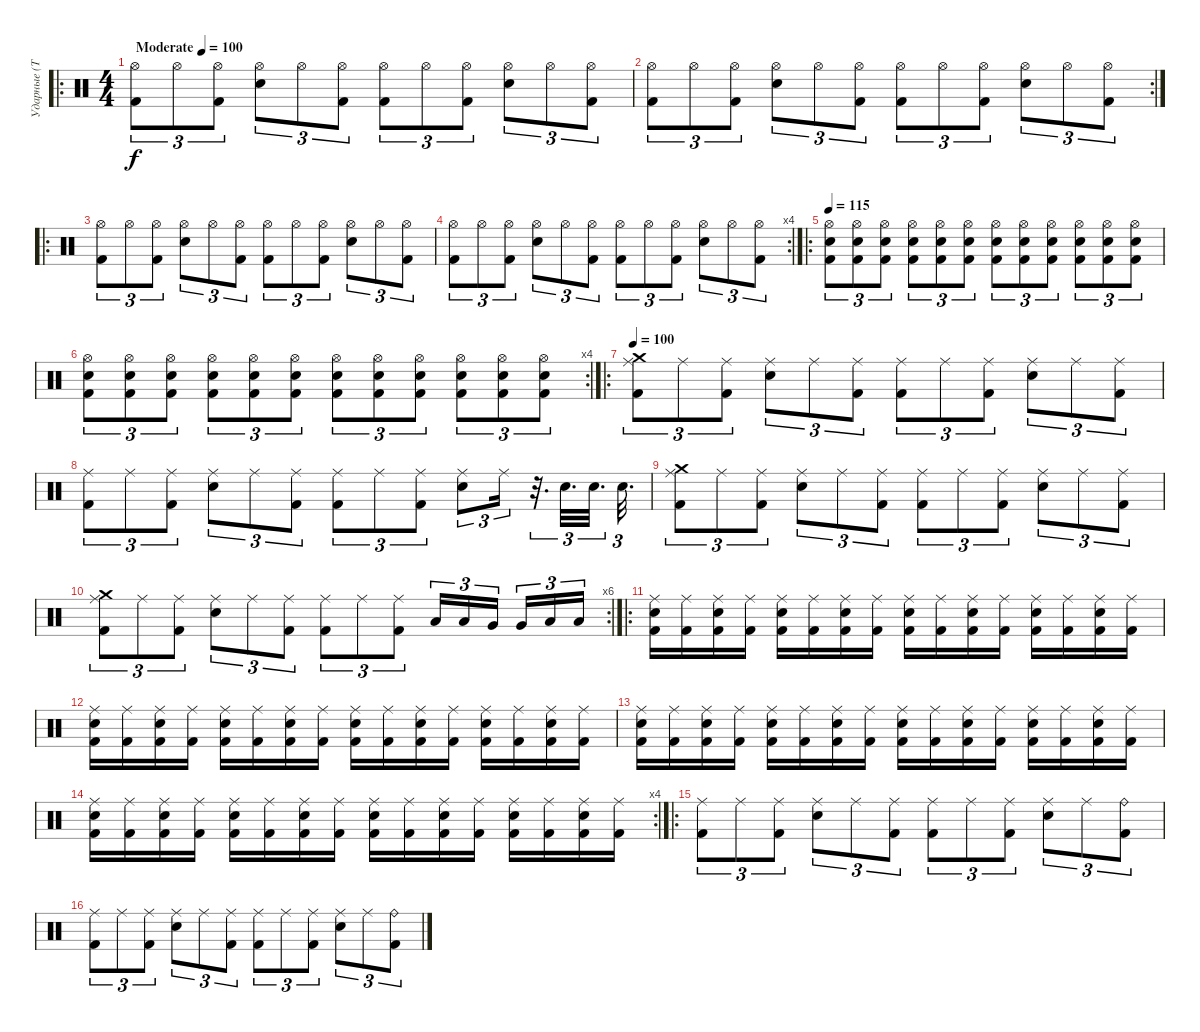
\track ("Ударные (Тьодальв)" "Ударные (Т") {instrument percussion}
\staff {score}
\articulation defaults
\ro
\ts (4 4)
\tempo (100 "Moderate")
\clef neutral
\ks c
("Hi-Hat (open)" "Kick (hit) 2").8{tu (3 2) dy f} "Hi-Hat (open)".8{tu (3 2)} ("Hi-Hat (open)" "Kick (hit) 2").8{tu (3 2)} ("Hi-Hat (open)" "Snare (hit) 2").8{tu (3 2)} "Hi-Hat (open)".8{tu (3 2)} ("Hi-Hat (open)" "Kick (hit) 2").8{tu (3 2)} ("Hi-Hat (open)" "Kick (hit) 2").8{tu (3 2)} "Hi-Hat (open)".8{tu (3 2)} ("Hi-Hat (open)" "Kick (hit) 2").8{tu (3 2)} ("Hi-Hat (open)" "Snare (hit) 2").8{tu (3 2)} "Hi-Hat (open)".8{tu (3 2)} ("Hi-Hat (open)" "Kick (hit) 2").8{tu (3 2)} |
\rc 2
("Hi-Hat (open)" "Kick (hit) 2").8{tu (3 2)} "Hi-Hat (open)".8{tu (3 2)} ("Hi-Hat (open)" "Kick (hit) 2").8{tu (3 2)} ("Hi-Hat (open)" "Snare (hit) 2").8{tu (3 2)} "Hi-Hat (open)".8{tu (3 2)} ("Hi-Hat (open)" "Kick (hit) 2").8{tu (3 2)} ("Hi-Hat (open)" "Kick (hit) 2").8{tu (3 2)} "Hi-Hat (open)".8{tu (3 2)} ("Hi-Hat (open)" "Kick (hit) 2").8{tu (3 2)} ("Hi-Hat (open)" "Snare (hit) 2").8{tu (3 2)} "Hi-Hat (open)".8{tu (3 2)} ("Hi-Hat (open)" "Kick (hit) 2").8{tu (3 2)} |
\ro
("Hi-Hat (open)" "Kick (hit) 2").8{tu (3 2)} "Hi-Hat (open)".8{tu (3 2)} ("Hi-Hat (open)" "Kick (hit) 2").8{tu (3 2)} ("Hi-Hat (open)" "Snare (hit) 2").8{tu (3 2)} "Hi-Hat (open)".8{tu (3 2)} ("Hi-Hat (open)" "Kick (hit) 2").8{tu (3 2)} ("Hi-Hat (open)" "Kick (hit) 2").8{tu (3 2)} "Hi-Hat (open)".8{tu (3 2)} ("Hi-Hat (open)" "Kick (hit) 2").8{tu (3 2)} ("Hi-Hat (open)" "Snare (hit) 2").8{tu (3 2)} "Hi-Hat (open)".8{tu (3 2)} ("Hi-Hat (open)" "Kick (hit) 2").8{tu (3 2)} |
\rc 4
("Hi-Hat (open)" "Kick (hit) 2").8{tu (3 2)} "Hi-Hat (open)".8{tu (3 2)} ("Hi-Hat (open)" "Kick (hit) 2").8{tu (3 2)} ("Hi-Hat (open)" "Snare (hit) 2").8{tu (3 2)} "Hi-Hat (open)".8{tu (3 2)} ("Hi-Hat (open)" "Kick (hit) 2").8{tu (3 2)} ("Hi-Hat (open)" "Kick (hit) 2").8{tu (3 2)} "Hi-Hat (open)".8{tu (3 2)} ("Hi-Hat (open)" "Kick (hit) 2").8{tu (3 2)} ("Hi-Hat (open)" "Snare (hit) 2").8{tu (3 2)} "Hi-Hat (open)".8{tu (3 2)} ("Hi-Hat (open)" "Kick (hit) 2").8{tu (3 2)} |
\ro
\tempo 115
("Hi-Hat (open)" "Snare (hit) 2" "Kick (hit) 2").8{tu (3 2)} ("Hi-Hat (open)" "Snare (hit) 2" "Kick (hit) 2").8{tu (3 2)} ("Hi-Hat (open)" "Snare (hit) 2" "Kick (hit) 2").8{tu (3 2)} ("Hi-Hat (open)" "Snare (hit) 2" "Kick (hit) 2").8{tu (3 2)} ("Hi-Hat (open)" "Snare (hit) 2" "Kick (hit) 2").8{tu (3 2)} ("Hi-Hat (open)" "Snare (hit) 2" "Kick (hit) 2").8{tu (3 2)} ("Hi-Hat (open)" "Snare (hit) 2" "Kick (hit) 2").8{tu (3 2)} ("Hi-Hat (open)" "Snare (hit) 2" "Kick (hit) 2").8{tu (3 2)} ("Hi-Hat (open)" "Snare (hit) 2" "Kick (hit) 2").8{tu (3 2)} ("Hi-Hat (open)" "Snare (hit) 2" "Kick (hit) 2").8{tu (3 2)} ("Hi-Hat (open)" "Snare (hit) 2" "Kick (hit) 2").8{tu (3 2)} ("Hi-Hat (open)" "Snare (hit) 2" "Kick (hit) 2").8{tu (3 2)} |
\rc 4
("Hi-Hat (open)" "Snare (hit) 2" "Kick (hit) 2").8{tu (3 2)} ("Hi-Hat (open)" "Snare (hit) 2" "Kick (hit) 2").8{tu (3 2)} ("Hi-Hat (open)" "Snare (hit) 2" "Kick (hit) 2").8{tu (3 2)} ("Hi-Hat (open)" "Snare (hit) 2" "Kick (hit) 2").8{tu (3 2)} ("Hi-Hat (open)" "Snare (hit) 2" "Kick (hit) 2").8{tu (3 2)} ("Hi-Hat (open)" "Snare (hit) 2" "Kick (hit) 2").8{tu (3 2)} ("Hi-Hat (open)" "Snare (hit) 2" "Kick (hit) 2").8{tu (3 2)} ("Hi-Hat (open)" "Snare (hit) 2" "Kick (hit) 2").8{tu (3 2)} ("Hi-Hat (open)" "Snare (hit) 2" "Kick (hit) 2").8{tu (3 2)} ("Hi-Hat (open)" "Snare (hit) 2" "Kick (hit) 2").8{tu (3 2)} ("Hi-Hat (open)" "Snare (hit) 2" "Kick (hit) 2").8{tu (3 2)} ("Hi-Hat (open)" "Snare (hit) 2" "Kick (hit) 2").8{tu (3 2)} |
\ro
\tempo 100
("Ride (middle)" "Kick (hit) 2" "Crash medium (hit)").8{tu (3 2)} "Ride (middle)".8{tu (3 2)} ("Ride (middle)" "Kick (hit) 2").8{tu (3 2)} ("Ride (middle)" "Snare (hit) 2").8{tu (3 2)} "Ride (middle)".8{tu (3 2)} ("Ride (middle)" "Kick (hit) 2").8{tu (3 2)} ("Ride (middle)" "Kick (hit) 2").8{tu (3 2)} "Ride (middle)".8{tu (3 2)} ("Ride (middle)" "Kick (hit) 2").8{tu (3 2)} ("Ride (middle)" "Snare (hit) 2").8{tu (3 2)} "Ride (middle)".8{tu (3 2)} ("Ride (middle)" "Kick (hit) 2").8{tu (3 2)} |
("Ride (middle)" "Kick (hit) 2").8{tu (3 2)} "Ride (middle)".8{tu (3 2)} ("Ride (middle)" "Kick (hit) 2").8{tu (3 2)} ("Ride (middle)" "Snare (hit) 2").8{tu (3 2)} "Ride (middle)".8{tu (3 2)} ("Ride (middle)" "Kick (hit) 2").8{tu (3 2)} ("Ride (middle)" "Kick (hit) 2").8{tu (3 2)} "Ride (middle)".8{tu (3 2)} ("Ride (middle)" "Kick (hit) 2").8{tu (3 2)} ("Ride (middle)" "Snare (hit) 2").8{tu (3 2)} "Ride (middle)".16{tu (3 2)} r.32{d tu (3 2)} "Snare (hit) 2".32{d tu (3 2)} "Snare (hit) 2".32{d tu (3 2)} "Snare (hit) 2".32{d tu (3 2)} |
("Ride (middle)" "Kick (hit) 2" "Crash medium (hit)").8{tu (3 2)} "Ride (middle)".8{tu (3 2)} ("Ride (middle)" "Kick (hit) 2").8{tu (3 2)} ("Ride (middle)" "Snare (hit) 2").8{tu (3 2)} "Ride (middle)".8{tu (3 2)} ("Ride (middle)" "Kick (hit) 2").8{tu (3 2)} ("Ride (middle)" "Kick (hit) 2").8{tu (3 2)} "Ride (middle)".8{tu (3 2)} ("Ride (middle)" "Kick (hit) 2").8{tu (3 2)} ("Ride (middle)" "Snare (hit) 2").8{tu (3 2)} "Ride (middle)".8{tu (3 2)} ("Ride (middle)" "Kick (hit) 2").8{tu (3 2)} |
\rc 6
("Ride (middle)" "Kick (hit) 2" "Crash medium (hit)").8{tu (3 2)} "Ride (middle)".8{tu (3 2)} ("Ride (middle)" "Kick (hit) 2").8{tu (3 2)} ("Ride (middle)" "Snare (hit) 2").8{tu (3 2)} "Ride (middle)".8{tu (3 2)} ("Ride (middle)" "Kick (hit) 2").8{tu (3 2)} ("Ride (middle)" "Kick (hit) 2").8{tu (3 2)} "Ride (middle)".8{tu (3 2)} ("Ride (middle)" "Kick (hit) 2").8{tu (3 2)} "Low Tom (hit)".16{tu (3 2)} "Low Tom (hit)".16{tu (3 2)} "Very Low Tom (hit)".16{tu (3 2) beam splitsecondary} "Very Low Tom (hit)".16{tu (3 2)} "Low Floor Tom (hit)".16{tu (3 2)} "Low Floor Tom (hit)".16{tu (3 2)} |
\ro
("Kick (hit) 2" "Ride (middle)" "Snare (hit) 2").16 ("Kick (hit) 2" "Ride (middle)").16 ("Kick (hit) 2" "Ride (middle)" "Snare (hit) 2").16 ("Kick (hit) 2" "Ride (middle)").16 ("Kick (hit) 2" "Ride (middle)" "Snare (hit) 2").16 ("Kick (hit) 2" "Ride (middle)").16 ("Kick (hit) 2" "Ride (middle)" "Snare (hit) 2").16 ("Kick (hit) 2" "Ride (middle)").16 ("Kick (hit) 2" "Ride (middle)" "Snare (hit) 2").16 ("Kick (hit) 2" "Ride (middle)").16 ("Kick (hit) 2" "Ride (middle)" "Snare (hit) 2").16 ("Kick (hit) 2" "Ride (middle)").16 ("Kick (hit) 2" "Ride (middle)" "Snare (hit) 2").16 ("Kick (hit) 2" "Ride (middle)").16 ("Kick (hit) 2" "Ride (middle)" "Snare (hit) 2").16 ("Kick (hit) 2" "Ride (middle)").16 |
("Kick (hit) 2" "Ride (middle)" "Snare (hit) 2").16 ("Kick (hit) 2" "Ride (middle)").16 ("Kick (hit) 2" "Ride (middle)" "Snare (hit) 2").16 ("Kick (hit) 2" "Ride (middle)").16 ("Kick (hit) 2" "Ride (middle)" "Snare (hit) 2").16 ("Kick (hit) 2" "Ride (middle)").16 ("Kick (hit) 2" "Ride (middle)" "Snare (hit) 2").16 ("Kick (hit) 2" "Ride (middle)").16 ("Kick (hit) 2" "Ride (middle)" "Snare (hit) 2").16 ("Kick (hit) 2" "Ride (middle)").16 ("Kick (hit) 2" "Ride (middle)" "Snare (hit) 2").16 ("Kick (hit) 2" "Ride (middle)").16 ("Kick (hit) 2" "Ride (middle)" "Snare (hit) 2").16 ("Kick (hit) 2" "Ride (middle)").16 ("Kick (hit) 2" "Ride (middle)" "Snare (hit) 2").16 ("Kick (hit) 2" "Ride (middle)").16 |
("Kick (hit) 2" "Ride (middle)" "Snare (hit) 2").16 ("Kick (hit) 2" "Ride (middle)").16 ("Kick (hit) 2" "Ride (middle)" "Snare (hit) 2").16 ("Kick (hit) 2" "Ride (middle)").16 ("Kick (hit) 2" "Ride (middle)" "Snare (hit) 2").16 ("Kick (hit) 2" "Ride (middle)").16 ("Kick (hit) 2" "Ride (middle)" "Snare (hit) 2").16 ("Kick (hit) 2" "Ride (middle)").16 ("Kick (hit) 2" "Ride (middle)" "Snare (hit) 2").16 ("Kick (hit) 2" "Ride (middle)").16 ("Kick (hit) 2" "Ride (middle)" "Snare (hit) 2").16 ("Kick (hit) 2" "Ride (middle)").16 ("Kick (hit) 2" "Ride (middle)" "Snare (hit) 2").16 ("Kick (hit) 2" "Ride (middle)").16 ("Kick (hit) 2" "Ride (middle)" "Snare (hit) 2").16 ("Kick (hit) 2" "Ride (middle)").16 |
\rc 4
("Kick (hit) 2" "Ride (middle)" "Snare (hit) 2").16 ("Kick (hit) 2" "Ride (middle)").16 ("Kick (hit) 2" "Ride (middle)" "Snare (hit) 2").16 ("Kick (hit) 2" "Ride (middle)").16 ("Kick (hit) 2" "Ride (middle)" "Snare (hit) 2").16 ("Kick (hit) 2" "Ride (middle)").16 ("Kick (hit) 2" "Ride (middle)" "Snare (hit) 2").16 ("Kick (hit) 2" "Ride (middle)").16 ("Kick (hit) 2" "Ride (middle)" "Snare (hit) 2").16 ("Kick (hit) 2" "Ride (middle)").16 ("Kick (hit) 2" "Ride (middle)" "Snare (hit) 2").16 ("Kick (hit) 2" "Ride (middle)").16 ("Kick (hit) 2" "Ride (middle)" "Snare (hit) 2").16 ("Kick (hit) 2" "Ride (middle)").16 ("Kick (hit) 2" "Ride (middle)" "Snare (hit) 2").16 ("Kick (hit) 2" "Ride (middle)").16 |
\ro
("Ride (middle)" "Kick (hit) 2").8{tu (3 2)} "Ride (middle)".8{tu (3 2)} ("Ride (middle)" "Kick (hit) 2").8{tu (3 2)} ("Ride (middle)" "Snare (hit) 2").8{tu (3 2)} "Ride (middle)".8{tu (3 2)} ("Ride (middle)" "Kick (hit) 2").8{tu (3 2)} ("Ride (middle)" "Kick (hit) 2").8{tu (3 2)} "Ride (middle)".8{tu (3 2)} ("Ride (middle)" "Kick (hit) 2").8{tu (3 2)} ("Ride (middle)" "Snare (hit) 2").8{tu (3 2)} "Ride (middle)".8{tu (3 2)} ("Ride (bell)" "Kick (hit) 2").8{tu (3 2)} |
("Ride (middle)" "Kick (hit) 2").8{tu (3 2)} "Ride (middle)".8{tu (3 2)} ("Ride (middle)" "Kick (hit) 2").8{tu (3 2)} ("Ride (middle)" "Snare (hit) 2").8{tu (3 2)} "Ride (middle)".8{tu (3 2)} ("Ride (middle)" "Kick (hit) 2").8{tu (3 2)} ("Ride (middle)" "Kick (hit) 2").8{tu (3 2)} "Ride (middle)".8{tu (3 2)} ("Ride (middle)" "Kick (hit) 2").8{tu (3 2)} ("Ride (middle)" "Snare (hit) 2").8{tu (3 2)} "Ride (middle)".8{tu (3 2)} ("Ride (bell)" "Kick (hit) 2").8{tu (3 2)}
